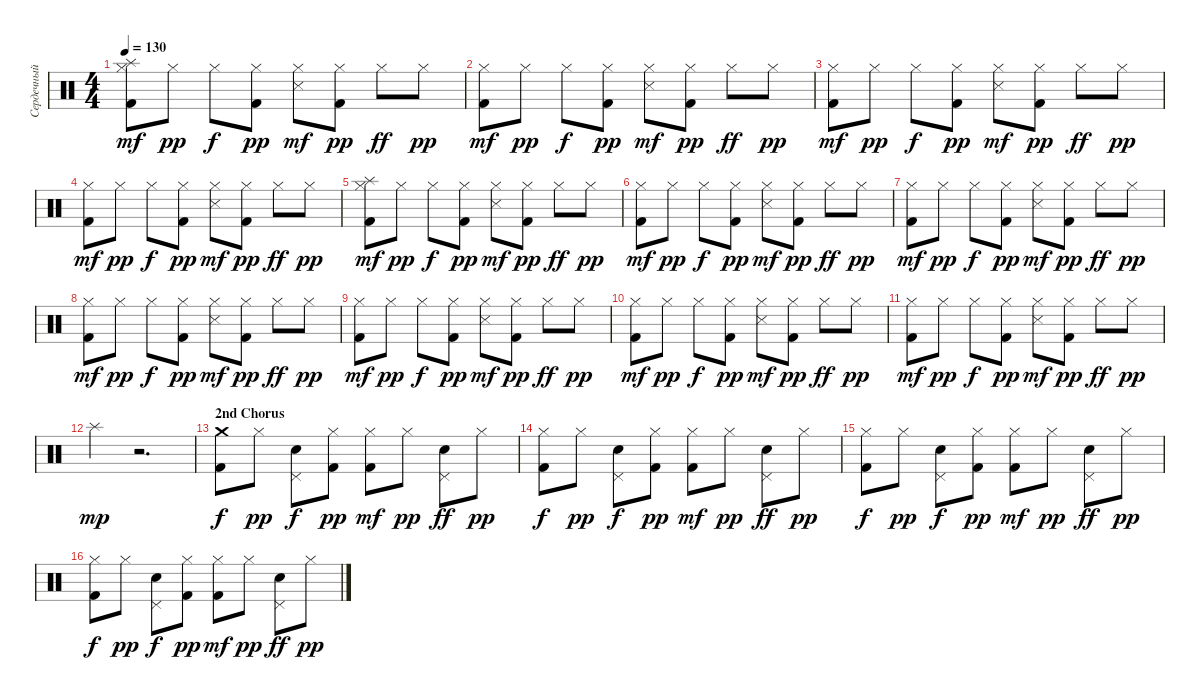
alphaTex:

\track ("Сердечный (Ударные)" "Сердечный ") {instrument percussion}
\staff {score}
\articulation defaults
\ts (4 4)
\tempo 130
\clef neutral
\ks c
("Kick (hit) 2" "Hi-Hat (closed)" "Splash (hit)").8{dy mf} "Hi-Hat (closed)".8{dy pp} "Hi-Hat (closed)".8{dy f} ("Kick (hit) 2" "Hi-Hat (closed)").8{dy pp} ("Snare (side stick) 3" "Hi-Hat (closed)").8{dy mf} ("Kick (hit) 2" "Hi-Hat (closed)").8{dy pp} "Hi-Hat (closed)".8{dy ff} "Hi-Hat (closed)".8{dy pp} |
("Kick (hit) 2" "Hi-Hat (closed)").8{dy mf} "Hi-Hat (closed)".8{dy pp} "Hi-Hat (closed)".8{dy f} ("Kick (hit) 2" "Hi-Hat (closed)").8{dy pp} ("Snare (side stick) 3" "Hi-Hat (closed)").8{dy mf} ("Kick (hit) 2" "Hi-Hat (closed)").8{dy pp} "Hi-Hat (closed)".8{dy ff} "Hi-Hat (closed)".8{dy pp} |
("Kick (hit) 2" "Hi-Hat (closed)").8{dy mf} "Hi-Hat (closed)".8{dy pp} "Hi-Hat (closed)".8{dy f} ("Kick (hit) 2" "Hi-Hat (closed)").8{dy pp} ("Snare (side stick) 3" "Hi-Hat (closed)").8{dy mf} ("Kick (hit) 2" "Hi-Hat (closed)").8{dy pp} "Hi-Hat (closed)".8{dy ff} "Hi-Hat (closed)".8{dy pp} |
("Kick (hit) 2" "Hi-Hat (closed)").8{dy mf} "Hi-Hat (closed)".8{dy pp} "Hi-Hat (closed)".8{dy f} ("Kick (hit) 2" "Hi-Hat (closed)").8{dy pp} ("Snare (side stick) 3" "Hi-Hat (closed)").8{dy mf} ("Kick (hit) 2" "Hi-Hat (closed)").8{dy pp} "Hi-Hat (closed)".8{dy ff} "Hi-Hat (closed)".8{dy pp} |
("Kick (hit) 2" "Hi-Hat (closed)" "Splash (hit)").8{dy mf} "Hi-Hat (closed)".8{dy pp} "Hi-Hat (closed)".8{dy f} ("Kick (hit) 2" "Hi-Hat (closed)").8{dy pp} ("Snare (side stick) 3" "Hi-Hat (closed)").8{dy mf} ("Kick (hit) 2" "Hi-Hat (closed)").8{dy pp} "Hi-Hat (closed)".8{dy ff} "Hi-Hat (closed)".8{dy pp} |
("Kick (hit) 2" "Hi-Hat (closed)").8{dy mf} "Hi-Hat (closed)".8{dy pp} "Hi-Hat (closed)".8{dy f} ("Kick (hit) 2" "Hi-Hat (closed)").8{dy pp} ("Snare (side stick) 3" "Hi-Hat (closed)").8{dy mf} ("Kick (hit) 2" "Hi-Hat (closed)").8{dy pp} "Hi-Hat (closed)".8{dy ff} "Hi-Hat (closed)".8{dy pp} |
("Kick (hit) 2" "Hi-Hat (closed)").8{dy mf} "Hi-Hat (closed)".8{dy pp} "Hi-Hat (closed)".8{dy f} ("Kick (hit) 2" "Hi-Hat (closed)").8{dy pp} ("Snare (side stick) 3" "Hi-Hat (closed)").8{dy mf} ("Kick (hit) 2" "Hi-Hat (closed)").8{dy pp} "Hi-Hat (closed)".8{dy ff} "Hi-Hat (closed)".8{dy pp} |
("Kick (hit) 2" "Hi-Hat (closed)").8{dy mf} "Hi-Hat (closed)".8{dy pp} "Hi-Hat (closed)".8{dy f} ("Kick (hit) 2" "Hi-Hat (closed)").8{dy pp} ("Snare (side stick) 3" "Hi-Hat (closed)").8{dy mf} ("Kick (hit) 2" "Hi-Hat (closed)").8{dy pp} "Hi-Hat (closed)".8{dy ff} "Hi-Hat (closed)".8{dy pp} |
("Kick (hit) 2" "Hi-Hat (closed)").8{dy mf} "Hi-Hat (closed)".8{dy pp} "Hi-Hat (closed)".8{dy f} ("Kick (hit) 2" "Hi-Hat (closed)").8{dy pp} ("Snare (side stick) 3" "Hi-Hat (closed)").8{dy mf} ("Kick (hit) 2" "Hi-Hat (closed)").8{dy pp} "Hi-Hat (closed)".8{dy ff} "Hi-Hat (closed)".8{dy pp} |
("Kick (hit) 2" "Hi-Hat (closed)").8{dy mf} "Hi-Hat (closed)".8{dy pp} "Hi-Hat (closed)".8{dy f} ("Kick (hit) 2" "Hi-Hat (closed)").8{dy pp} ("Snare (side stick) 3" "Hi-Hat (closed)").8{dy mf} ("Kick (hit) 2" "Hi-Hat (closed)").8{dy pp} "Hi-Hat (closed)".8{dy ff} "Hi-Hat (closed)".8{dy pp} |
("Kick (hit) 2" "Hi-Hat (closed)").8{dy mf} "Hi-Hat (closed)".8{dy pp} "Hi-Hat (closed)".8{dy f} ("Kick (hit) 2" "Hi-Hat (closed)").8{dy pp} ("Snare (side stick) 3" "Hi-Hat (closed)").8{dy mf} ("Kick (hit) 2" "Hi-Hat (closed)").8{dy pp} "Hi-Hat (closed)".8{dy ff} "Hi-Hat (closed)".8{dy pp} |
"Splash (hit)".4{dy mp} r.2{d} |
\section ("" "2nd Chorus")
("Kick (hit) 2" "Crash medium (hit)").8{dy f} "Hi-Hat (closed)".8{dy pp} ("Pedal Hi-Hat (hit)" "Electric Snare (hit)").8{dy f} ("Hi-Hat (closed)" "Kick (hit) 2").8{dy pp} ("Hi-Hat (closed)" "Kick (hit) 2").8{dy mf} "Hi-Hat (closed)".8{dy pp} ("Pedal Hi-Hat (hit)" "Electric Snare (hit)").8{dy ff} "Hi-Hat (closed)".8{dy pp} |
("Hi-Hat (closed)" "Kick (hit) 2").8{dy f} "Hi-Hat (closed)".8{dy pp} ("Pedal Hi-Hat (hit)" "Electric Snare (hit)").8{dy f} ("Hi-Hat (closed)" "Kick (hit) 2").8{dy pp} ("Hi-Hat (closed)" "Kick (hit) 2").8{dy mf} "Hi-Hat (closed)".8{dy pp} ("Pedal Hi-Hat (hit)" "Electric Snare (hit)").8{dy ff} "Hi-Hat (closed)".8{dy pp} |
("Hi-Hat (closed)" "Kick (hit) 2").8{dy f} "Hi-Hat (closed)".8{dy pp} ("Pedal Hi-Hat (hit)" "Electric Snare (hit)").8{dy f} ("Hi-Hat (closed)" "Kick (hit) 2").8{dy pp} ("Hi-Hat (closed)" "Kick (hit) 2").8{dy mf} "Hi-Hat (closed)".8{dy pp} ("Pedal Hi-Hat (hit)" "Electric Snare (hit)").8{dy ff} "Hi-Hat (closed)".8{dy pp} |
("Hi-Hat (closed)" "Kick (hit) 2").8{dy f} "Hi-Hat (closed)".8{dy pp} ("Pedal Hi-Hat (hit)" "Electric Snare (hit)").8{dy f} ("Hi-Hat (closed)" "Kick (hit) 2").8{dy pp} ("Hi-Hat (closed)" "Kick (hit) 2").8{dy mf} "Hi-Hat (closed)".8{dy pp} ("Pedal Hi-Hat (hit)" "Electric Snare (hit)").8{dy ff} "Hi-Hat (closed)".8{dy pp}
